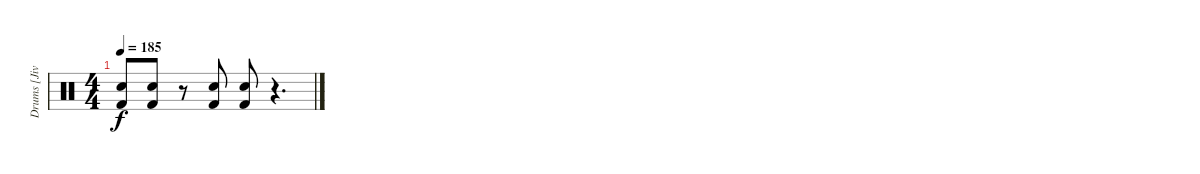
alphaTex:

\track ("Drums [Jivarp]" "Drums [Jiv") {instrument percussion}
\staff {score}
\articulation defaults
\ts (4 4)
\tempo 185
\clef neutral
\ks c
("Electric Snare (hit)" "Kick (hit) 2").8{dy f} ("Electric Snare (hit)" "Kick (hit) 2").8 r.8 ("Electric Snare (hit)" "Kick (hit) 2").8 ("Electric Snare (hit)" "Kick (hit) 2").8 r.4{d}
